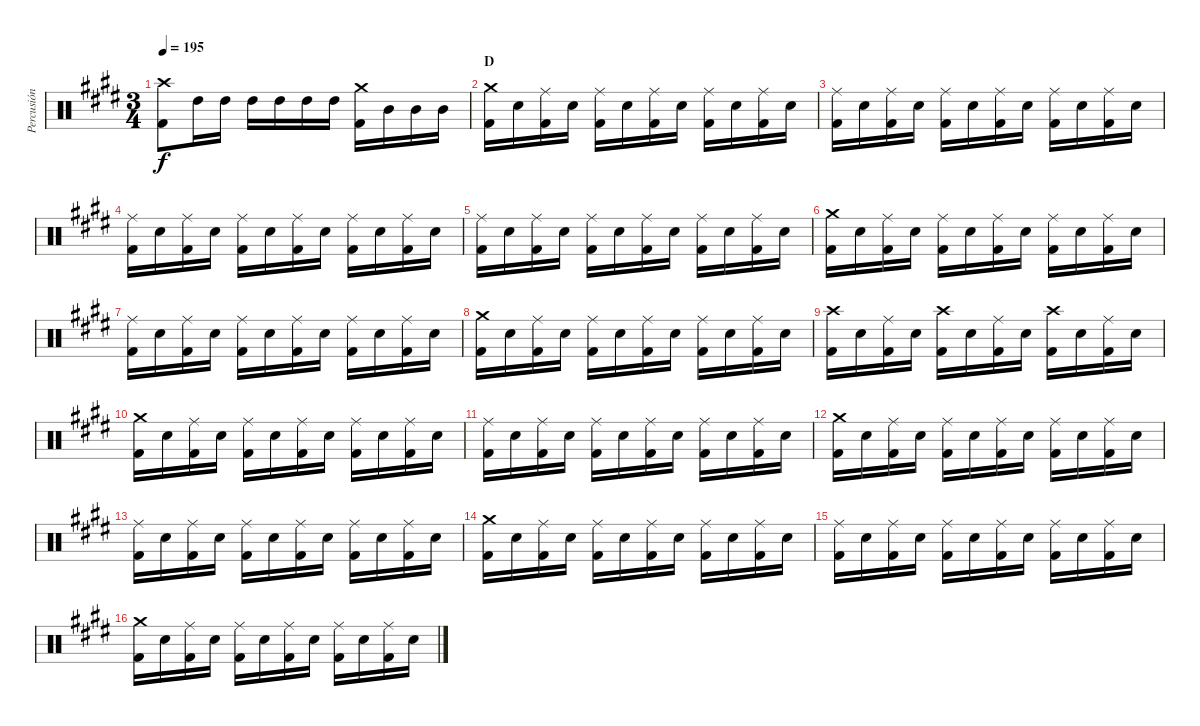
\track ("Percusión" "Percusión") {instrument percussion}
\staff {score}
\articulation defaults
\ts (3 4)
\tempo 195
\clef neutral
\ks e
("Crash high (hit)" "Kick (hit) 2").8{dy f} "High Tom (hit)".16 "High Tom (hit)".16 "High Tom (hit)".16 "High Tom (hit)".16 "High Tom (hit)".16 "High Tom (hit)".16 ("Crash medium (hit)" "Kick (hit) 2").16 "Mid Tom (hit)".16 "Mid Tom (hit)".16 "Mid Tom (hit)".16 |
\section ("" "D")
("Crash medium (hit)" "Kick (hit) 2").16 "Electric Snare (hit)".16 ("Ride (middle)" "Kick (hit) 2").16 "Electric Snare (hit)".16 ("Ride (middle)" "Kick (hit) 2").16 "Electric Snare (hit)".16 ("Ride (middle)" "Kick (hit) 2").16 "Electric Snare (hit)".16 ("Ride (middle)" "Kick (hit) 2").16 "Electric Snare (hit)".16 ("Ride (middle)" "Kick (hit) 2").16 "Electric Snare (hit)".16 |
("Ride (middle)" "Kick (hit) 2").16 "Electric Snare (hit)".16 ("Ride (middle)" "Kick (hit) 2").16 "Electric Snare (hit)".16 ("Ride (middle)" "Kick (hit) 2").16 "Electric Snare (hit)".16 ("Ride (middle)" "Kick (hit) 2").16 "Electric Snare (hit)".16 ("Ride (middle)" "Kick (hit) 2").16 "Electric Snare (hit)".16 ("Ride (middle)" "Kick (hit) 2").16 "Electric Snare (hit)".16 |
("Ride (middle)" "Kick (hit) 2").16 "Electric Snare (hit)".16 ("Ride (middle)" "Kick (hit) 2").16 "Electric Snare (hit)".16 ("Ride (middle)" "Kick (hit) 2").16 "Electric Snare (hit)".16 ("Ride (middle)" "Kick (hit) 2").16 "Electric Snare (hit)".16 ("Ride (middle)" "Kick (hit) 2").16 "Electric Snare (hit)".16 ("Ride (middle)" "Kick (hit) 2").16 "Electric Snare (hit)".16 |
("Ride (middle)" "Kick (hit) 2").16 "Electric Snare (hit)".16 ("Ride (middle)" "Kick (hit) 2").16 "Electric Snare (hit)".16 ("Ride (middle)" "Kick (hit) 2").16 "Electric Snare (hit)".16 ("Ride (middle)" "Kick (hit) 2").16 "Electric Snare (hit)".16 ("Ride (middle)" "Kick (hit) 2").16 "Electric Snare (hit)".16 ("Ride (middle)" "Kick (hit) 2").16 "Electric Snare (hit)".16 |
("Crash medium (hit)" "Kick (hit) 2").16 "Electric Snare (hit)".16 ("Ride (middle)" "Kick (hit) 2").16 "Electric Snare (hit)".16 ("Ride (middle)" "Kick (hit) 2").16 "Electric Snare (hit)".16 ("Ride (middle)" "Kick (hit) 2").16 "Electric Snare (hit)".16 ("Ride (middle)" "Kick (hit) 2").16 "Electric Snare (hit)".16 ("Ride (middle)" "Kick (hit) 2").16 "Electric Snare (hit)".16 |
("Ride (middle)" "Kick (hit) 2").16 "Electric Snare (hit)".16 ("Ride (middle)" "Kick (hit) 2").16 "Electric Snare (hit)".16 ("Ride (middle)" "Kick (hit) 2").16 "Electric Snare (hit)".16 ("Ride (middle)" "Kick (hit) 2").16 "Electric Snare (hit)".16 ("Ride (middle)" "Kick (hit) 2").16 "Electric Snare (hit)".16 ("Ride (middle)" "Kick (hit) 2").16 "Electric Snare (hit)".16 |
("Crash medium (hit)" "Kick (hit) 2").16 "Electric Snare (hit)".16 ("Ride (middle)" "Kick (hit) 2").16 "Electric Snare (hit)".16 ("Ride (middle)" "Kick (hit) 2").16 "Electric Snare (hit)".16 ("Ride (middle)" "Kick (hit) 2").16 "Electric Snare (hit)".16 ("Ride (middle)" "Kick (hit) 2").16 "Electric Snare (hit)".16 ("Ride (middle)" "Kick (hit) 2").16 "Electric Snare (hit)".16 |
("Crash high (hit)" "Kick (hit) 2").16 "Electric Snare (hit)".16 ("Ride (middle)" "Kick (hit) 2").16 "Electric Snare (hit)".16 ("Crash high (hit)" "Kick (hit) 2").16 "Electric Snare (hit)".16 ("Ride (middle)" "Kick (hit) 2").16 "Electric Snare (hit)".16 ("Crash high (hit)" "Kick (hit) 2").16 "Electric Snare (hit)".16 ("Ride (middle)" "Kick (hit) 2").16 "Electric Snare (hit)".16 |
("Crash medium (hit)" "Kick (hit) 2").16 "Electric Snare (hit)".16 ("Ride (middle)" "Kick (hit) 2").16 "Electric Snare (hit)".16 ("Ride (middle)" "Kick (hit) 2").16 "Electric Snare (hit)".16 ("Ride (middle)" "Kick (hit) 2").16 "Electric Snare (hit)".16 ("Ride (middle)" "Kick (hit) 2").16 "Electric Snare (hit)".16 ("Ride (middle)" "Kick (hit) 2").16 "Electric Snare (hit)".16 |
("Ride (middle)" "Kick (hit) 2").16 "Electric Snare (hit)".16 ("Ride (middle)" "Kick (hit) 2").16 "Electric Snare (hit)".16 ("Ride (middle)" "Kick (hit) 2").16 "Electric Snare (hit)".16 ("Ride (middle)" "Kick (hit) 2").16 "Electric Snare (hit)".16 ("Ride (middle)" "Kick (hit) 2").16 "Electric Snare (hit)".16 ("Ride (middle)" "Kick (hit) 2").16 "Electric Snare (hit)".16 |
("Crash medium (hit)" "Kick (hit) 2").16 "Electric Snare (hit)".16 ("Ride (middle)" "Kick (hit) 2").16 "Electric Snare (hit)".16 ("Ride (middle)" "Kick (hit) 2").16 "Electric Snare (hit)".16 ("Ride (middle)" "Kick (hit) 2").16 "Electric Snare (hit)".16 ("Ride (middle)" "Kick (hit) 2").16 "Electric Snare (hit)".16 ("Ride (middle)" "Kick (hit) 2").16 "Electric Snare (hit)".16 |
("Ride (middle)" "Kick (hit) 2").16 "Electric Snare (hit)".16 ("Ride (middle)" "Kick (hit) 2").16 "Electric Snare (hit)".16 ("Ride (middle)" "Kick (hit) 2").16 "Electric Snare (hit)".16 ("Ride (middle)" "Kick (hit) 2").16 "Electric Snare (hit)".16 ("Ride (middle)" "Kick (hit) 2").16 "Electric Snare (hit)".16 ("Ride (middle)" "Kick (hit) 2").16 "Electric Snare (hit)".16 |
("Crash medium (hit)" "Kick (hit) 2").16 "Electric Snare (hit)".16 ("Ride (middle)" "Kick (hit) 2").16 "Electric Snare (hit)".16 ("Ride (middle)" "Kick (hit) 2").16 "Electric Snare (hit)".16 ("Ride (middle)" "Kick (hit) 2").16 "Electric Snare (hit)".16 ("Ride (middle)" "Kick (hit) 2").16 "Electric Snare (hit)".16 ("Ride (middle)" "Kick (hit) 2").16 "Electric Snare (hit)".16 |
("Ride (middle)" "Kick (hit) 2").16 "Electric Snare (hit)".16 ("Ride (middle)" "Kick (hit) 2").16 "Electric Snare (hit)".16 ("Ride (middle)" "Kick (hit) 2").16 "Electric Snare (hit)".16 ("Ride (middle)" "Kick (hit) 2").16 "Electric Snare (hit)".16 ("Ride (middle)" "Kick (hit) 2").16 "Electric Snare (hit)".16 ("Ride (middle)" "Kick (hit) 2").16 "Electric Snare (hit)".16 |
("Crash medium (hit)" "Kick (hit) 2").16 "Electric Snare (hit)".16 ("Ride (middle)" "Kick (hit) 2").16 "Electric Snare (hit)".16 ("Ride (middle)" "Kick (hit) 2").16 "Electric Snare (hit)".16 ("Ride (middle)" "Kick (hit) 2").16 "Electric Snare (hit)".16 ("Ride (middle)" "Kick (hit) 2").16 "Electric Snare (hit)".16 ("Ride (middle)" "Kick (hit) 2").16 "Electric Snare (hit)".16
